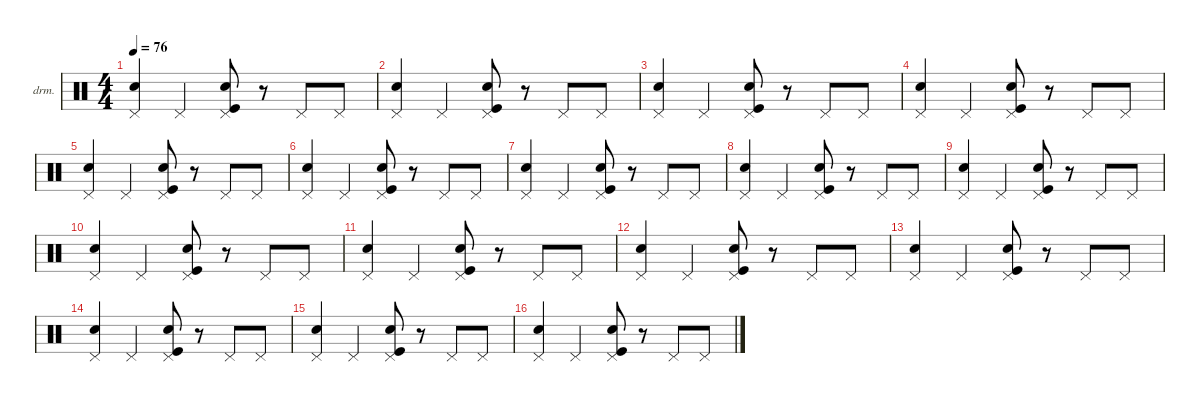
\defaultSystemsLayout 4
\hideDynamics
\bracketExtendMode nobrackets
\firstSystemTrackNameOrientation horizontal
\otherSystemsTrackNameOrientation horizontal
\track ("Drums" "drm.") {instrument percussion}
\staff {score}
\articulation defaults
\ts (4 4)
\tempo 76
\clef neutral
\ks c
("Pedal Hi-Hat (hit)" "Snare (hit) 2").4{dy f} "Pedal Hi-Hat (hit)".4 ("Pedal Hi-Hat (hit)" "Snare (hit) 2" "Kick (hit)").8 r.8 "Pedal Hi-Hat (hit)".8 "Pedal Hi-Hat (hit)".8 |
("Pedal Hi-Hat (hit)" "Snare (hit) 2").4 "Pedal Hi-Hat (hit)".4 ("Pedal Hi-Hat (hit)" "Snare (hit) 2" "Kick (hit)").8 r.8 "Pedal Hi-Hat (hit)".8 "Pedal Hi-Hat (hit)".8 |
("Pedal Hi-Hat (hit)" "Snare (hit) 2").4 "Pedal Hi-Hat (hit)".4 ("Pedal Hi-Hat (hit)" "Snare (hit) 2" "Kick (hit)").8 r.8 "Pedal Hi-Hat (hit)".8 "Pedal Hi-Hat (hit)".8 |
("Pedal Hi-Hat (hit)" "Snare (hit) 2").4 "Pedal Hi-Hat (hit)".4 ("Pedal Hi-Hat (hit)" "Snare (hit) 2" "Kick (hit)").8 r.8 "Pedal Hi-Hat (hit)".8 "Pedal Hi-Hat (hit)".8 |
("Pedal Hi-Hat (hit)" "Snare (hit) 2").4 "Pedal Hi-Hat (hit)".4 ("Pedal Hi-Hat (hit)" "Snare (hit) 2" "Kick (hit)").8 r.8 "Pedal Hi-Hat (hit)".8 "Pedal Hi-Hat (hit)".8 |
("Pedal Hi-Hat (hit)" "Snare (hit) 2").4 "Pedal Hi-Hat (hit)".4 ("Pedal Hi-Hat (hit)" "Snare (hit) 2" "Kick (hit)").8 r.8 "Pedal Hi-Hat (hit)".8 "Pedal Hi-Hat (hit)".8 |
("Pedal Hi-Hat (hit)" "Snare (hit) 2").4 "Pedal Hi-Hat (hit)".4 ("Pedal Hi-Hat (hit)" "Snare (hit) 2" "Kick (hit)").8 r.8 "Pedal Hi-Hat (hit)".8 "Pedal Hi-Hat (hit)".8 |
("Pedal Hi-Hat (hit)" "Snare (hit) 2").4 "Pedal Hi-Hat (hit)".4 ("Pedal Hi-Hat (hit)" "Snare (hit) 2" "Kick (hit)").8 r.8 "Pedal Hi-Hat (hit)".8 "Pedal Hi-Hat (hit)".8 |
("Pedal Hi-Hat (hit)" "Snare (hit) 2").4 "Pedal Hi-Hat (hit)".4 ("Pedal Hi-Hat (hit)" "Snare (hit) 2" "Kick (hit)").8 r.8 "Pedal Hi-Hat (hit)".8 "Pedal Hi-Hat (hit)".8 |
("Pedal Hi-Hat (hit)" "Snare (hit) 2").4 "Pedal Hi-Hat (hit)".4 ("Pedal Hi-Hat (hit)" "Snare (hit) 2" "Kick (hit)").8 r.8 "Pedal Hi-Hat (hit)".8 "Pedal Hi-Hat (hit)".8 |
("Pedal Hi-Hat (hit)" "Snare (hit) 2").4 "Pedal Hi-Hat (hit)".4 ("Pedal Hi-Hat (hit)" "Snare (hit) 2" "Kick (hit)").8 r.8 "Pedal Hi-Hat (hit)".8 "Pedal Hi-Hat (hit)".8 |
("Pedal Hi-Hat (hit)" "Snare (hit) 2").4 "Pedal Hi-Hat (hit)".4 ("Pedal Hi-Hat (hit)" "Snare (hit) 2" "Kick (hit)").8 r.8 "Pedal Hi-Hat (hit)".8 "Pedal Hi-Hat (hit)".8 |
("Pedal Hi-Hat (hit)" "Snare (hit) 2").4 "Pedal Hi-Hat (hit)".4 ("Pedal Hi-Hat (hit)" "Snare (hit) 2" "Kick (hit)").8 r.8 "Pedal Hi-Hat (hit)".8 "Pedal Hi-Hat (hit)".8 |
("Pedal Hi-Hat (hit)" "Snare (hit) 2").4 "Pedal Hi-Hat (hit)".4 ("Pedal Hi-Hat (hit)" "Snare (hit) 2" "Kick (hit)").8 r.8 "Pedal Hi-Hat (hit)".8 "Pedal Hi-Hat (hit)".8 |
("Pedal Hi-Hat (hit)" "Snare (hit) 2").4 "Pedal Hi-Hat (hit)".4 ("Pedal Hi-Hat (hit)" "Snare (hit) 2" "Kick (hit)").8 r.8 "Pedal Hi-Hat (hit)".8 "Pedal Hi-Hat (hit)".8 |
("Pedal Hi-Hat (hit)" "Snare (hit) 2").4 "Pedal Hi-Hat (hit)".4 ("Pedal Hi-Hat (hit)" "Snare (hit) 2" "Kick (hit)").8 r.8 "Pedal Hi-Hat (hit)".8 "Pedal Hi-Hat (hit)".8
